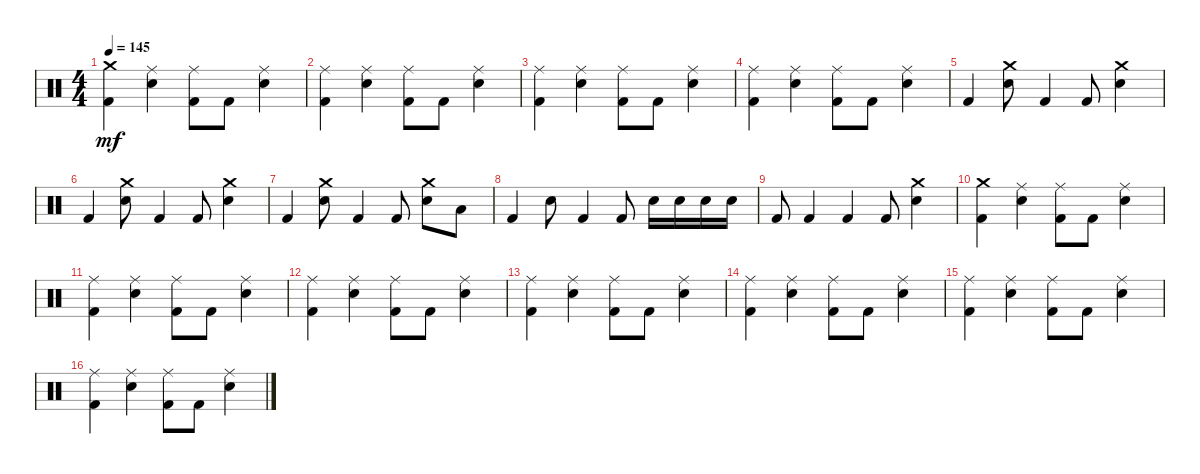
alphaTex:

\track "" {instrument percussion}
\staff {score}
\articulation defaults
\ts (4 4)
\tempo 145
\clef neutral
\ks c
("Crash medium (hit)" "Kick (hit) 2").4{dy mf} ("Ride (middle)" "Snare (hit) 2").4 ("Ride (middle)" "Kick (hit) 2").8 "Kick (hit) 2".8 ("Ride (middle)" "Snare (hit) 2").4 |
("Ride (middle)" "Kick (hit) 2").4 ("Ride (middle)" "Snare (hit) 2").4 ("Ride (middle)" "Kick (hit) 2").8 "Kick (hit) 2".8 ("Ride (middle)" "Snare (hit) 2").4 |
("Ride (middle)" "Kick (hit) 2").4 ("Ride (middle)" "Snare (hit) 2").4 ("Ride (middle)" "Kick (hit) 2").8 "Kick (hit) 2".8 ("Ride (middle)" "Snare (hit) 2").4 |
("Ride (middle)" "Kick (hit) 2").4 ("Ride (middle)" "Snare (hit) 2").4 ("Ride (middle)" "Kick (hit) 2").8 "Kick (hit) 2".8 ("Ride (middle)" "Snare (hit) 2").4 |
"Kick (hit) 2".4 ("Crash medium (hit)" "Snare (hit) 2").8 "Kick (hit) 2".4 "Kick (hit) 2".8 ("Crash medium (hit)" "Snare (hit) 2").4 |
"Kick (hit) 2".4 ("Crash medium (hit)" "Snare (hit) 2").8 "Kick (hit) 2".4 "Kick (hit) 2".8 ("Crash medium (hit)" "Snare (hit) 2").4 |
"Kick (hit) 2".4 ("Crash medium (hit)" "Snare (hit) 2").8 "Kick (hit) 2".4 "Kick (hit) 2".8 ("Crash medium (hit)" "Snare (hit) 2").8 "Low Floor Tom (hit)".8 |
"Kick (hit) 2".4 "Snare (hit) 2".8 "Kick (hit) 2".4 "Kick (hit) 2".8 "Snare (hit) 2".16 "Snare (hit) 2".16 "Snare (hit) 2".16 "Snare (hit) 2".16 |
"Kick (hit) 2".8 "Kick (hit) 2".4 "Kick (hit) 2".4 "Kick (hit) 2".8 ("Crash medium (hit)" "Snare (hit) 2").4 |
("Crash medium (hit)" "Kick (hit) 2").4 ("Ride (middle)" "Snare (hit) 2").4 ("Ride (middle)" "Kick (hit) 2").8 "Kick (hit) 2".8 ("Ride (middle)" "Snare (hit) 2").4 |
("Ride (middle)" "Kick (hit) 2").4 ("Ride (middle)" "Snare (hit) 2").4 ("Ride (middle)" "Kick (hit) 2").8 "Kick (hit) 2".8 ("Ride (middle)" "Snare (hit) 2").4 |
("Ride (middle)" "Kick (hit) 2").4 ("Ride (middle)" "Snare (hit) 2").4 ("Ride (middle)" "Kick (hit) 2").8 "Kick (hit) 2".8 ("Ride (middle)" "Snare (hit) 2").4 |
("Ride (middle)" "Kick (hit) 2").4 ("Ride (middle)" "Snare (hit) 2").4 ("Ride (middle)" "Kick (hit) 2").8 "Kick (hit) 2".8 ("Ride (middle)" "Snare (hit) 2").4 |
("Ride (middle)" "Kick (hit) 2").4 ("Ride (middle)" "Snare (hit) 2").4 ("Ride (middle)" "Kick (hit) 2").8 "Kick (hit) 2".8 ("Ride (middle)" "Snare (hit) 2").4 |
("Ride (middle)" "Kick (hit) 2").4 ("Ride (middle)" "Snare (hit) 2").4 ("Ride (middle)" "Kick (hit) 2").8 "Kick (hit) 2".8 ("Ride (middle)" "Snare (hit) 2").4 |
("Ride (middle)" "Kick (hit) 2").4 ("Ride (middle)" "Snare (hit) 2").4 ("Ride (middle)" "Kick (hit) 2").8 "Kick (hit) 2".8 ("Ride (middle)" "Snare (hit) 2").4
